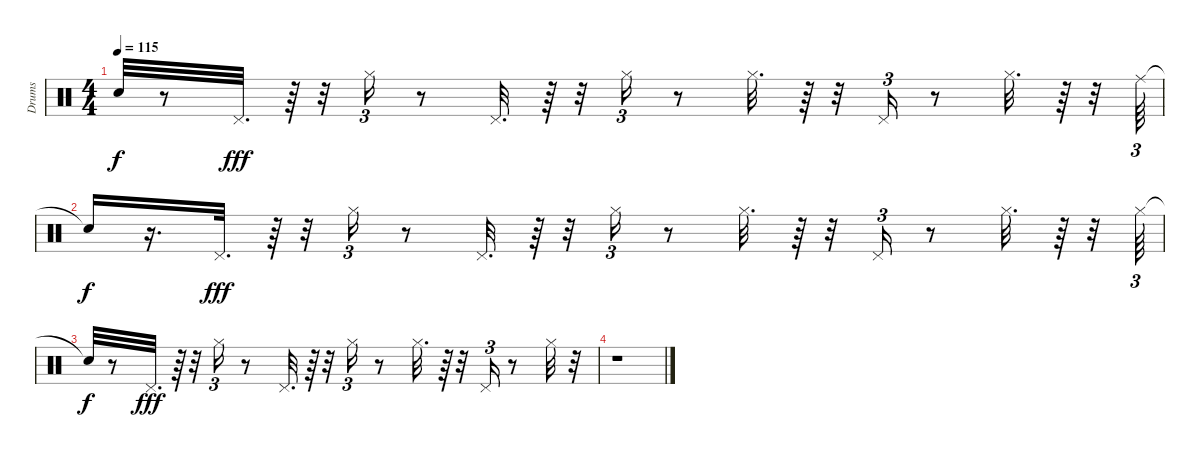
\track ("Drums" "Drums") {instrument percussion}
\staff {score}
\articulation defaults
\ts (4 4)
\tempo 115
\clef neutral
\ks c "Snare (hit)"{t}.32{dy f}
r.8 "Pedal Hi-Hat (hit)".32{d dy fff} r.64 r.32 "Hi-Hat (closed)".16{tu (3 2)} r.8 "Pedal Hi-Hat (hit)".32{d} r.64 r.32 "Hi-Hat (closed)".16{tu (3 2)} r.8 "Hi-Hat (closed)".32{d} r.64 r.32 "Pedal Hi-Hat (hit)".16{tu (3 2)} r.8 "Hi-Hat (closed)".32{d} r.64 r.32 "Ride (middle)".64{tu (3 2)} |
"Snare (hit)"{t}.16{dy f} r.16{d} "Pedal Hi-Hat (hit)".32{d dy fff} r.64 r.32 "Hi-Hat (closed)".16{tu (3 2)} r.8 "Pedal Hi-Hat (hit)".32{d} r.64 r.32 "Hi-Hat (closed)".16{tu (3 2)} r.8 "Hi-Hat (closed)".32{d} r.64 r.32 "Pedal Hi-Hat (hit)".16{tu (3 2)} r.8 "Hi-Hat (closed)".32{d} r.64 r.32 "Hi-Hat (closed)".64{tu (3 2)} |
"Snare (hit)"{t}.32{dy f} r.8 "Pedal Hi-Hat (hit)".32{d dy fff} r.64 r.32 "Hi-Hat (closed)".16{tu (3 2)} r.8 "Pedal Hi-Hat (hit)".32{d} r.64 r.32 "Hi-Hat (closed)".16{tu (3 2)} r.8 "Hi-Hat (closed)".32{d} r.64 r.32 "Pedal Hi-Hat (hit)".16{tu (3 2)} r.8 "Hi-Hat (closed)".32 r.32 |
r.1
